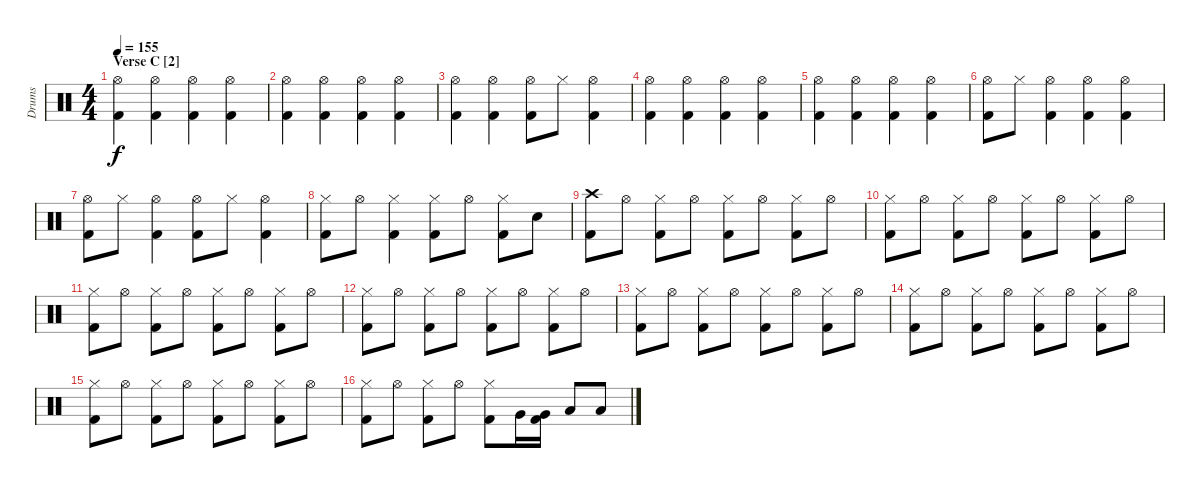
\track ("Drums" "Drums") {instrument percussion}
\staff {score}
\articulation defaults
\ts (4 4)
\section ("" "Verse C [2]")
\tempo 155
\clef neutral
\ks c
("Hi-Hat (open)" "Kick (hit) 2").4{dy f} ("Hi-Hat (open)" "Kick (hit) 2").4 ("Hi-Hat (open)" "Kick (hit) 2").4 ("Hi-Hat (open)" "Kick (hit) 2").4 |
("Hi-Hat (open)" "Kick (hit) 2").4 ("Hi-Hat (open)" "Kick (hit) 2").4 ("Hi-Hat (open)" "Kick (hit) 2").4 ("Hi-Hat (open)" "Kick (hit) 2").4 |
("Hi-Hat (open)" "Kick (hit) 2").4 ("Hi-Hat (open)" "Kick (hit) 2").4 ("Hi-Hat (open)" "Kick (hit) 2").8 "Hi-Hat (closed)".8 ("Hi-Hat (open)" "Kick (hit) 2").4 |
("Hi-Hat (open)" "Kick (hit) 2").4 ("Hi-Hat (open)" "Kick (hit) 2").4 ("Hi-Hat (open)" "Kick (hit) 2").4 ("Hi-Hat (open)" "Kick (hit) 2").4 |
("Hi-Hat (open)" "Kick (hit) 2").4 ("Hi-Hat (open)" "Kick (hit) 2").4 ("Hi-Hat (open)" "Kick (hit) 2").4 ("Hi-Hat (open)" "Kick (hit) 2").4 |
("Hi-Hat (open)" "Kick (hit) 2").8 "Hi-Hat (closed)".8 ("Hi-Hat (open)" "Kick (hit) 2").4 ("Hi-Hat (open)" "Kick (hit) 2").4 ("Hi-Hat (open)" "Kick (hit) 2").4 |
("Hi-Hat (open)" "Kick (hit) 2").8 "Hi-Hat (closed)".8 ("Hi-Hat (open)" "Kick (hit) 2").4 ("Hi-Hat (open)" "Kick (hit) 2").8 "Hi-Hat (closed)".8 ("Hi-Hat (open)" "Kick (hit) 2").4 |
("Hi-Hat (closed)" "Kick (hit) 2").8 "Hi-Hat (open)".8 ("Hi-Hat (closed)" "Kick (hit) 2").4 ("Hi-Hat (closed)" "Kick (hit) 2").8 "Hi-Hat (open)".8 ("Hi-Hat (closed)" "Kick (hit) 2").8 "Electric Snare (hit)".8 |
("Crash high (hit)" "Kick (hit) 2").8 "Hi-Hat (open)".8 ("Hi-Hat (closed)" "Kick (hit) 2").8 "Hi-Hat (open)".8 ("Hi-Hat (closed)" "Kick (hit) 2").8 "Hi-Hat (open)".8 ("Hi-Hat (closed)" "Kick (hit) 2").8 "Hi-Hat (open)".8 |
("Hi-Hat (closed)" "Kick (hit) 2").8 "Hi-Hat (open)".8 ("Hi-Hat (closed)" "Kick (hit) 2").8 "Hi-Hat (open)".8 ("Hi-Hat (closed)" "Kick (hit) 2").8 "Hi-Hat (open)".8 ("Hi-Hat (closed)" "Kick (hit) 2").8 "Hi-Hat (open)".8 |
("Hi-Hat (closed)" "Kick (hit) 2").8 "Hi-Hat (open)".8 ("Hi-Hat (closed)" "Kick (hit) 2").8 "Hi-Hat (open)".8 ("Hi-Hat (closed)" "Kick (hit) 2").8 "Hi-Hat (open)".8 ("Hi-Hat (closed)" "Kick (hit) 2").8 "Hi-Hat (open)".8 |
("Hi-Hat (closed)" "Kick (hit) 2").8 "Hi-Hat (open)".8 ("Hi-Hat (closed)" "Kick (hit) 2").8 "Hi-Hat (open)".8 ("Hi-Hat (closed)" "Kick (hit) 2").8 "Hi-Hat (open)".8 ("Hi-Hat (closed)" "Kick (hit) 2").8 "Hi-Hat (open)".8 |
("Hi-Hat (closed)" "Kick (hit) 2").8 "Hi-Hat (open)".8 ("Hi-Hat (closed)" "Kick (hit) 2").8 "Hi-Hat (open)".8 ("Hi-Hat (closed)" "Kick (hit) 2").8 "Hi-Hat (open)".8 ("Hi-Hat (closed)" "Kick (hit) 2").8 "Hi-Hat (open)".8 |
("Hi-Hat (closed)" "Kick (hit) 2").8 "Hi-Hat (open)".8 ("Hi-Hat (closed)" "Kick (hit) 2").8 "Hi-Hat (open)".8 ("Hi-Hat (closed)" "Kick (hit) 2").8 "Hi-Hat (open)".8 ("Hi-Hat (closed)" "Kick (hit) 2").8 "Hi-Hat (open)".8 |
("Hi-Hat (closed)" "Kick (hit) 2").8 "Hi-Hat (open)".8 ("Hi-Hat (closed)" "Kick (hit) 2").8 "Hi-Hat (open)".8 ("Hi-Hat (closed)" "Kick (hit) 2").8 "Hi-Hat (open)".8 ("Hi-Hat (closed)" "Kick (hit) 2").8 "Hi-Hat (open)".8 |
("Hi-Hat (closed)" "Kick (hit) 2").8 "Hi-Hat (open)".8 ("Hi-Hat (closed)" "Kick (hit) 2").8 "Hi-Hat (open)".8 ("Hi-Hat (closed)" "Kick (hit) 2").8 "Very Low Tom (hit)".16 ("Very Low Tom (hit)" "Kick (hit) 2").16 "Low Floor Tom (hit)".8 "Low Floor Tom (hit)".8
